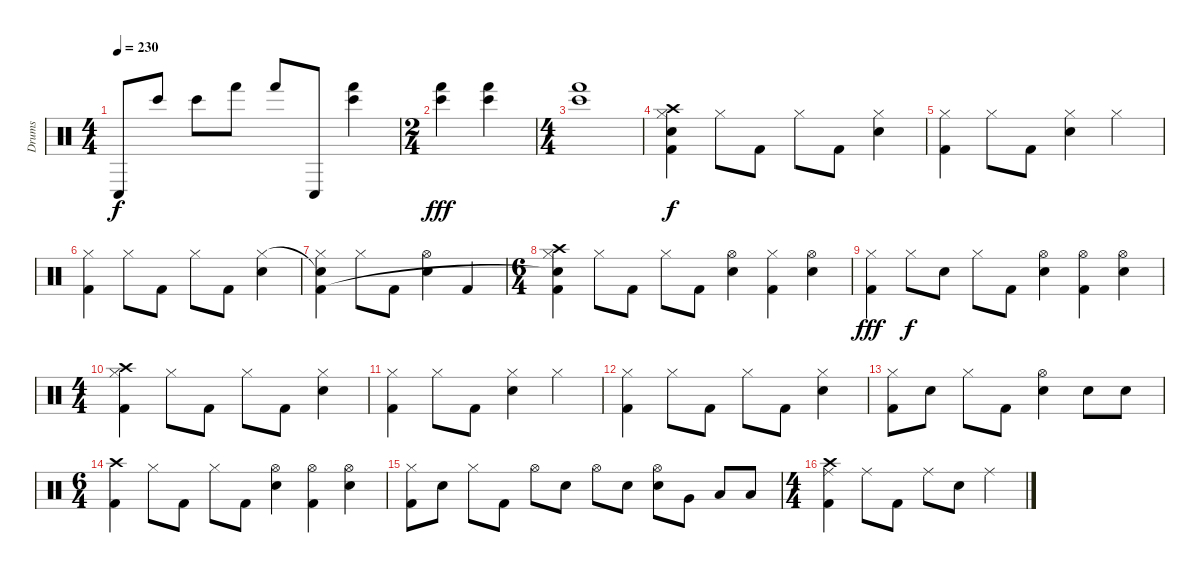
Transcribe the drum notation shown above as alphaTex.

\track ("Drums" "Drums") {instrument percussion}
\staff {score}
\articulation defaults
\ts (4 4)
\tempo 230
\clef neutral
\ks c "Conga low (hit)".8{dy f} "Bongo High (hit)".8 "Bongo High (hit)".8 "Hand (hit)".8 "Hand (hit)".8 "Conga low (hit)".8
("Bongo High (hit)" "Hand (hit)").4 |
\ts (2 4)
("Bongo High (hit)" "Hand (hit)").4{dy fff} ("Bongo High (hit)" "Hand (hit)").4 |
\ts (4 4)
("Bongo High (hit)" "Hand (hit)").1 |
("Crash high (hit)" "Hi-Hat (closed)" "Snare (hit)" "Kick (hit) 2").4{dy f} "Hi-Hat (closed)".8 "Kick (hit) 2".8 "Hi-Hat (closed)".8 "Kick (hit) 2".8 ("Hi-Hat (closed)" "Electric Snare (hit)").4 |
("Hi-Hat (closed)" "Kick (hit) 2").4 "Hi-Hat (closed)".8 "Kick (hit) 2".8 ("Hi-Hat (closed)" "Electric Snare (hit)").4 "Hi-Hat (closed)".4 |
("Hi-Hat (closed)" "Kick (hit) 2").4 "Hi-Hat (closed)".8 "Kick (hit) 2".8 "Hi-Hat (closed)".8 "Kick (hit) 2".8 ("Hi-Hat (closed)" "Electric Snare (hit)").4 |
("Snare (hit)"{t} "Hi-Hat (closed)" "Kick (hit) 2").4 "Hi-Hat (closed)".8 "Kick (hit) 2".8 ("Hi-Hat (open)" "Electric Snare (hit)").4 "Kick (hit) 2".4 |
\ts (6 4)
("Crash high (hit)" "Hi-Hat (closed)" "Snare (hit)"{t} "Kick (hit) 2").4 "Hi-Hat (closed)".8 "Kick (hit) 2".8 "Hi-Hat (closed)".8 "Kick (hit) 2".8 ("Hi-Hat (open)" "Electric Snare (hit)").4 ("Hi-Hat (closed)" "Kick (hit) 2").4 ("Hi-Hat (open)" "Electric Snare (hit)").4 |
("Hi-Hat (closed)" "Kick (hit) 2").4{dy fff} "Hi-Hat (closed)".8{dy f} "Electric Snare (hit)".8 "Hi-Hat (closed)".8 "Kick (hit) 2".8 ("Hi-Hat (open)" "Electric Snare (hit)").4 ("Hi-Hat (open)" "Kick (hit) 2").4 ("Hi-Hat (open)" "Electric Snare (hit)").4 |
\ts (4 4)
("Crash high (hit)" "Hi-Hat (closed)" "Kick (hit) 2").4 "Hi-Hat (closed)".8 "Kick (hit) 2".8 "Hi-Hat (closed)".8 "Kick (hit) 2".8 ("Hi-Hat (closed)" "Electric Snare (hit)").4 |
("Hi-Hat (closed)" "Kick (hit) 2").4 "Hi-Hat (closed)".8 "Kick (hit) 2".8 ("Hi-Hat (closed)" "Electric Snare (hit)").4 "Hi-Hat (closed)".4 |
("Hi-Hat (closed)" "Kick (hit) 2").4 "Hi-Hat (closed)".8 "Kick (hit) 2".8 "Hi-Hat (closed)".8 "Kick (hit) 2".8 ("Hi-Hat (closed)" "Electric Snare (hit)").4 |
("Hi-Hat (closed)" "Kick (hit) 2").8 "Electric Snare (hit)".8 "Hi-Hat (closed)".8 "Kick (hit) 2".8 ("Hi-Hat (open)" "Electric Snare (hit)").4 "Electric Snare (hit)".8 "Electric Snare (hit)".8 |
\ts (6 4)
("Crash high (hit)" "Kick (hit) 2").4 "Hi-Hat (closed)".8 "Kick (hit) 2".8 "Hi-Hat (closed)".8 "Kick (hit) 2".8 ("Hi-Hat (open)" "Electric Snare (hit)").4 ("Hi-Hat (open)" "Kick (hit) 2").4 ("Hi-Hat (open)" "Electric Snare (hit)").4 |
("Hi-Hat (closed)" "Kick (hit) 2").8 "Electric Snare (hit)".8 "Hi-Hat (closed)".8 "Kick (hit) 2".8 "Hi-Hat (open)".8 "Electric Snare (hit)".8 "Hi-Hat (open)".8 "Electric Snare (hit)".8 ("Hi-Hat (open)" "Electric Snare (hit)").8 "Very Low Tom (hit)".8 "Low Floor Tom (hit)".8 "Low Floor Tom (hit)".8 |
\ts (4 4)
("Crash high (hit)" "Ride (middle)" "Kick (hit) 2").4 "Ride (middle)".8 "Kick (hit) 2".8 "Ride (middle)".8 "Electric Snare (hit)".8 "Ride (middle)".4
